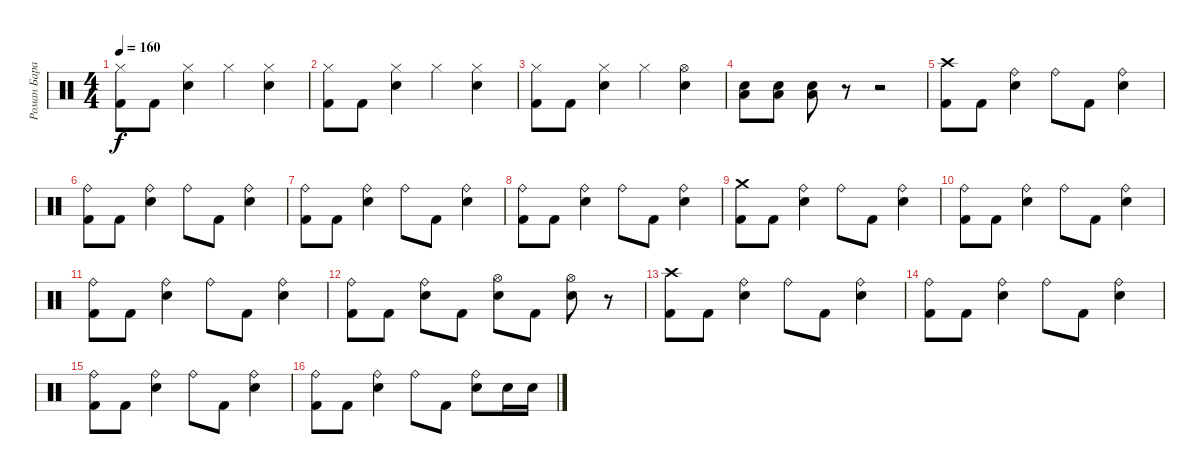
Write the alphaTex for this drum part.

\track ("Роман Баранюк" "Роман Бара") {instrument percussion}
\staff {score}
\articulation defaults
\ts (4 4)
\tempo 160
\clef neutral
\ks c
("Hi-Hat (closed)" "Kick (hit) 2").8{dy f} "Kick (hit) 2".8 ("Hi-Hat (closed)" "Snare (hit) 2").4 "Hi-Hat (closed)".4 ("Hi-Hat (closed)" "Snare (hit) 2").4 |
("Hi-Hat (closed)" "Kick (hit) 2").8 "Kick (hit) 2".8 ("Hi-Hat (closed)" "Snare (hit) 2").4 "Hi-Hat (closed)".4 ("Hi-Hat (closed)" "Snare (hit) 2").4 |
("Hi-Hat (closed)" "Kick (hit) 2").8 "Kick (hit) 2".8 ("Hi-Hat (closed)" "Snare (hit) 2").4 "Hi-Hat (closed)".4 ("Hi-Hat (open)" "Snare (hit) 2").4 |
("Snare (hit) 2" "Low Tom (hit)").8 ("Snare (hit) 2" "Low Tom (hit)").8 ("Snare (hit) 2" "Low Tom (hit)").8 r.8 r.2 |
("Crash high (hit)" "Kick (hit) 2").8 "Kick (hit) 2".8 ("Ride (bell)" "Snare (hit) 2").4 "Ride (bell)".8 "Kick (hit) 2".8 ("Ride (bell)" "Snare (hit) 2").4 |
("Ride (bell)" "Kick (hit) 2").8 "Kick (hit) 2".8 ("Ride (bell)" "Snare (hit) 2").4 "Ride (bell)".8 "Kick (hit) 2".8 ("Ride (bell)" "Snare (hit) 2").4 |
("Ride (bell)" "Kick (hit) 2").8 "Kick (hit) 2".8 ("Ride (bell)" "Snare (hit) 2").4 "Ride (bell)".8 "Kick (hit) 2".8 ("Ride (bell)" "Snare (hit) 2").4 |
("Ride (bell)" "Kick (hit) 2").8 "Kick (hit) 2".8 ("Ride (bell)" "Snare (hit) 2").4 "Ride (bell)".8 "Kick (hit) 2".8 ("Ride (bell)" "Snare (hit) 2").4 |
("Crash medium (hit)" "Kick (hit) 2").8 "Kick (hit) 2".8 ("Ride (bell)" "Snare (hit) 2").4 "Ride (bell)".8 "Kick (hit) 2".8 ("Ride (bell)" "Snare (hit) 2").4 |
("Ride (bell)" "Kick (hit) 2").8 "Kick (hit) 2".8 ("Ride (bell)" "Snare (hit) 2").4 "Ride (bell)".8 "Kick (hit) 2".8 ("Ride (bell)" "Snare (hit) 2").4 |
("Ride (bell)" "Kick (hit) 2").8 "Kick (hit) 2".8 ("Ride (bell)" "Snare (hit) 2").4 "Ride (bell)".8 "Kick (hit) 2".8 ("Ride (bell)" "Snare (hit) 2").4 |
("Ride (bell)" "Kick (hit) 2").8 "Kick (hit) 2".8 ("Ride (bell)" "Snare (hit) 2").8 "Kick (hit) 2".8 ("Hi-Hat (open)" "Snare (hit) 2").8 "Kick (hit) 2".8 ("Hi-Hat (open)" "Snare (hit) 2").8 r.8 |
("Crash high (hit)" "Kick (hit) 2").8 "Kick (hit) 2".8 ("Ride (bell)" "Snare (hit) 2").4 "Ride (bell)".8 "Kick (hit) 2".8 ("Ride (bell)" "Snare (hit) 2").4 |
("Ride (bell)" "Kick (hit) 2").8 "Kick (hit) 2".8 ("Ride (bell)" "Snare (hit) 2").4 "Ride (bell)".8 "Kick (hit) 2".8 ("Ride (bell)" "Snare (hit) 2").4 |
("Ride (bell)" "Kick (hit) 2").8 "Kick (hit) 2".8 ("Ride (bell)" "Snare (hit) 2").4 "Ride (bell)".8 "Kick (hit) 2".8 ("Ride (bell)" "Snare (hit) 2").4 |
("Ride (bell)" "Kick (hit) 2").8 "Kick (hit) 2".8 ("Ride (bell)" "Snare (hit) 2").4 "Ride (bell)".8 "Kick (hit) 2".8 ("Ride (bell)" "Snare (hit) 2").8 "Snare (hit) 2".16 "Snare (hit) 2".16
